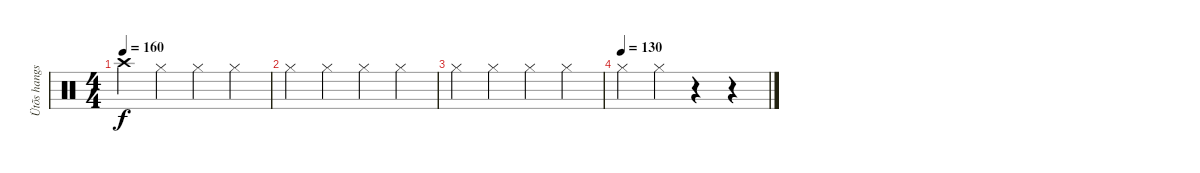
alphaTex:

\track ("Ütõs hangszer" "Ütõs hangs") {instrument percussion}
\staff {score}
\articulation defaults
\ts (4 4)
\tempo 160
\clef neutral
\ks c "Crash high (hit)".4{dy f} "Hi-Hat (closed)".4 "Hi-Hat (closed)".4 "Hi-Hat (closed)".4
|
"Hi-Hat (closed)".4 "Hi-Hat (closed)".4 "Hi-Hat (closed)".4 "Hi-Hat (closed)".4 |
"Hi-Hat (closed)".4 "Hi-Hat (closed)".4 "Hi-Hat (closed)".4 "Hi-Hat (closed)".4 |
\tempo (130)
"Hi-Hat (closed)".4 "Hi-Hat (closed)".4 r.4 r.4
